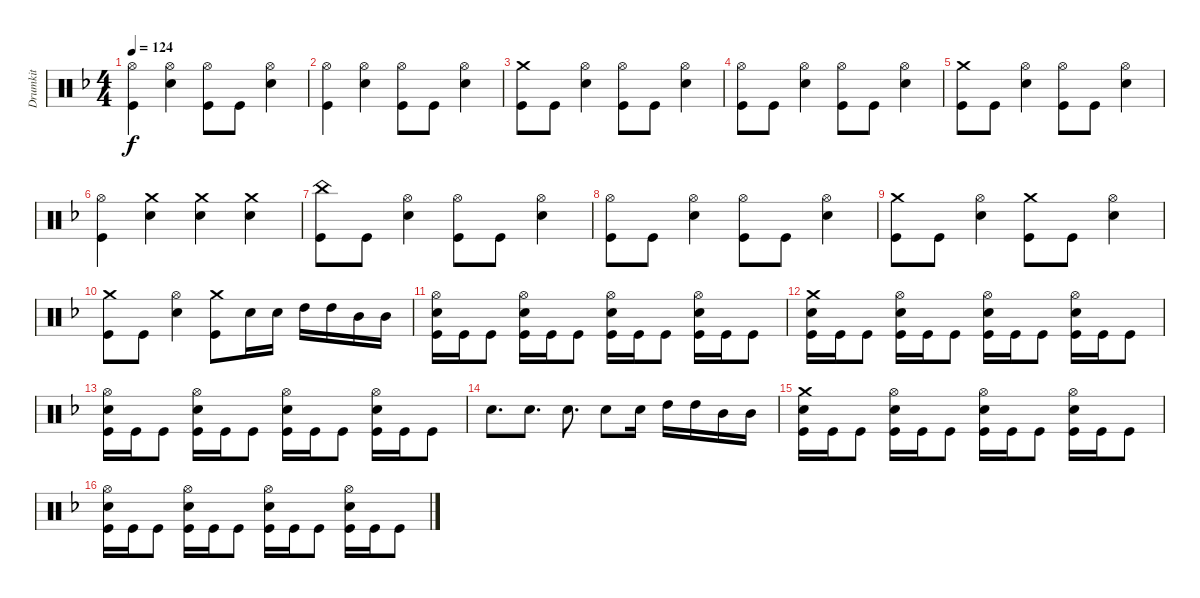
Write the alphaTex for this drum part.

\track ("Drumkit" "Drumkit") {instrument percussion}
\staff {score}
\articulation defaults
\ts (4 4)
\tempo 124
\clef neutral
\ks dminor
("Hi-Hat (open)" "Kick (hit)").4{dy f} ("Hi-Hat (open)" "Snare (hit) 2").4 ("Hi-Hat (open)" "Kick (hit)").8 "Kick (hit)".8 ("Snare (hit) 2" "Hi-Hat (open)").4 |
("Hi-Hat (open)" "Kick (hit)").4 ("Hi-Hat (open)" "Snare (hit) 2").4 ("Hi-Hat (open)" "Kick (hit)").8 "Kick (hit)".8 ("Snare (hit) 2" "Hi-Hat (open)").4 |
("Crash medium (hit)" "Kick (hit)").8 "Kick (hit)".8 ("Snare (hit) 2" "Hi-Hat (open)").4 ("Kick (hit)" "Hi-Hat (open)").8 "Kick (hit)".8 ("Hi-Hat (open)" "Snare (hit) 2").4 |
("Kick (hit)" "Hi-Hat (open)").8 "Kick (hit)".8 ("Snare (hit) 2" "Hi-Hat (open)").4 ("Kick (hit)" "Hi-Hat (open)").8 "Kick (hit)".8 ("Hi-Hat (open)" "Snare (hit) 2").4 |
("Crash medium (hit)" "Kick (hit)").8 "Kick (hit)".8 ("Snare (hit) 2" "Hi-Hat (open)").4 ("Kick (hit)" "Hi-Hat (open)").8 "Kick (hit)".8 ("Hi-Hat (open)" "Snare (hit) 2").4 |
("Kick (hit)" "Hi-Hat (open)").4 ("Snare (hit) 2" "Crash medium (hit)").4 ("Crash medium (hit)" "Snare (hit) 2").4 ("Crash medium (hit)" "Snare (hit) 2").4 |
("Kick (hit)" "China (hit)").8 "Kick (hit)".8 ("Snare (hit) 2" "Hi-Hat (open)").4 ("Kick (hit)" "Hi-Hat (open)").8 "Kick (hit)".8 ("Hi-Hat (open)" "Snare (hit) 2").4 |
("Kick (hit)" "Hi-Hat (open)").8 "Kick (hit)".8 ("Snare (hit) 2" "Hi-Hat (open)").4 ("Kick (hit)" "Hi-Hat (open)").8 "Kick (hit)".8 ("Hi-Hat (open)" "Snare (hit) 2").4 |
("Kick (hit)" "Crash medium (hit)").8 "Kick (hit)".8 ("Snare (hit) 2" "Hi-Hat (open)").4 ("Kick (hit)" "Crash medium (hit)").8 "Kick (hit)".8 ("Hi-Hat (open)" "Snare (hit) 2").4 |
("Kick (hit)" "Crash medium (hit)").8 "Kick (hit)".8 ("Snare (hit) 2" "Hi-Hat (open)").4 ("Kick (hit)" "Crash medium (hit)").8 "Snare (hit) 2".16 "Snare (hit) 2".16 "High Tom (hit)".16 "High Tom (hit)".16 "Mid Tom (hit)".16 "Mid Tom (hit)".16 |
("Kick (hit)" "Snare (hit) 2" "Hi-Hat (open)").16 "Kick (hit)".16 "Kick (hit)".8 ("Kick (hit)" "Snare (hit) 2" "Hi-Hat (open)").16 "Kick (hit)".16 "Kick (hit)".8 ("Kick (hit)" "Snare (hit) 2" "Hi-Hat (open)").16 "Kick (hit)".16 "Kick (hit)".8 ("Kick (hit)" "Snare (hit) 2" "Hi-Hat (open)").16 "Kick (hit)".16 "Kick (hit)".8 |
("Kick (hit)" "Snare (hit) 2" "Crash medium (hit)").16 "Kick (hit)".16 "Kick (hit)".8 ("Kick (hit)" "Snare (hit) 2" "Hi-Hat (open)").16 "Kick (hit)".16 "Kick (hit)".8 ("Kick (hit)" "Snare (hit) 2" "Hi-Hat (open)").16 "Kick (hit)".16 "Kick (hit)".8 ("Kick (hit)" "Snare (hit) 2" "Hi-Hat (open)").16 "Kick (hit)".16 "Kick (hit)".8 |
("Kick (hit)" "Snare (hit) 2" "Hi-Hat (open)").16 "Kick (hit)".16 "Kick (hit)".8 ("Kick (hit)" "Snare (hit) 2" "Hi-Hat (open)").16 "Kick (hit)".16 "Kick (hit)".8 ("Kick (hit)" "Snare (hit) 2" "Hi-Hat (open)").16 "Kick (hit)".16 "Kick (hit)".8 ("Kick (hit)" "Snare (hit) 2" "Hi-Hat (open)").16 "Kick (hit)".16 "Kick (hit)".8 |
"Snare (hit) 2".8{d} "Snare (hit) 2".8{d} "Snare (hit) 2".8{d} "Snare (hit) 2".8 "Snare (hit) 2".16 "High Tom (hit)".16 "High Tom (hit)".16 "Mid Tom (hit)".16 "Mid Tom (hit)".16 |
("Kick (hit)" "Snare (hit) 2" "Crash medium (hit)").16 "Kick (hit)".16 "Kick (hit)".8 ("Kick (hit)" "Snare (hit) 2" "Hi-Hat (open)").16 "Kick (hit)".16 "Kick (hit)".8 ("Kick (hit)" "Snare (hit) 2" "Hi-Hat (open)").16 "Kick (hit)".16 "Kick (hit)".8 ("Kick (hit)" "Snare (hit) 2" "Hi-Hat (open)").16 "Kick (hit)".16 "Kick (hit)".8 |
("Kick (hit)" "Snare (hit) 2" "Hi-Hat (open)").16 "Kick (hit)".16 "Kick (hit)".8 ("Kick (hit)" "Snare (hit) 2" "Hi-Hat (open)").16 "Kick (hit)".16 "Kick (hit)".8 ("Kick (hit)" "Snare (hit) 2" "Hi-Hat (open)").16 "Kick (hit)".16 "Kick (hit)".8 ("Kick (hit)" "Snare (hit) 2" "Hi-Hat (open)").16 "Kick (hit)".16 "Kick (hit)".8
